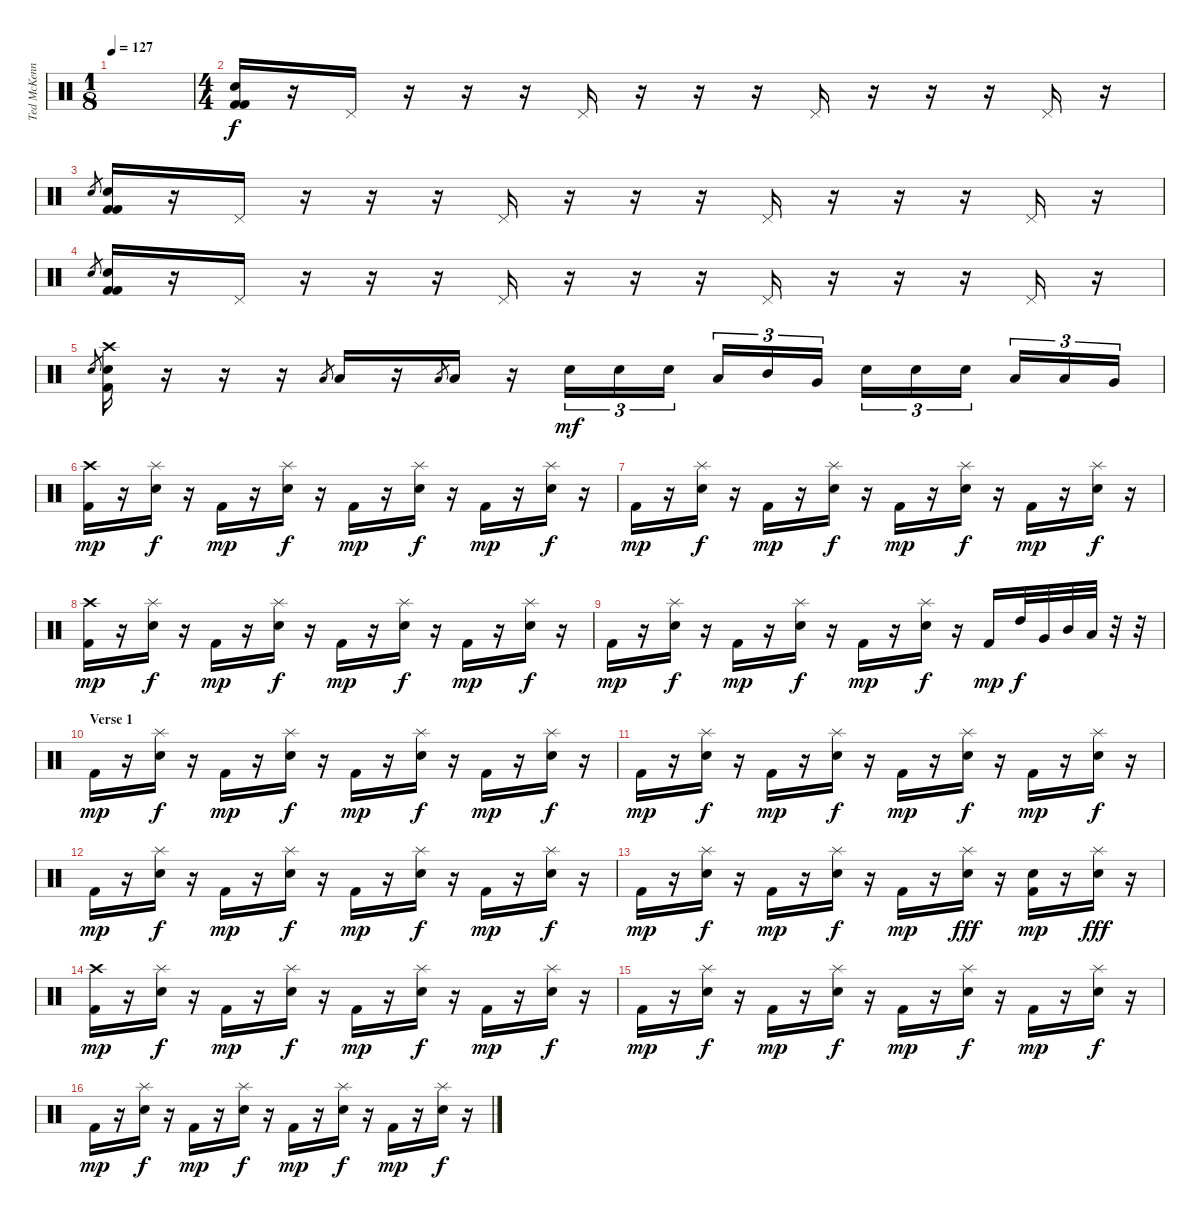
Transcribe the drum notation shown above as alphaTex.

\track ("Ted McKenna" "Ted McKenn") {instrument percussion}
\staff {score}
\articulation defaults
\ts (1 8)
\tempo 127
\clef neutral
\ks c
|
\ts (4 4)
("Electric Snare (hit)" "Kick (hit) 2" "Kick (hit) 2").16 r.16 "Pedal Hi-Hat (hit)".16 r.16 r.16 r.16 "Pedal Hi-Hat (hit)".16 r.16 r.16 r.16 "Pedal Hi-Hat (hit)".16 r.16 r.16 r.16 "Pedal Hi-Hat (hit)".16 r.16 |
"Electric Snare (hit)".8{gr} ("Electric Snare (hit)" "Kick (hit) 2" "Kick (hit) 2").16 r.16 "Pedal Hi-Hat (hit)".16 r.16 r.16 r.16 "Pedal Hi-Hat (hit)".16 r.16 r.16 r.16 "Pedal Hi-Hat (hit)".16 r.16 r.16 r.16 "Pedal Hi-Hat (hit)".16 r.16 |
"Electric Snare (hit)".8{gr} ("Electric Snare (hit)" "Kick (hit) 2" "Kick (hit) 2").16 r.16 "Pedal Hi-Hat (hit)".16 r.16 r.16 r.16 "Pedal Hi-Hat (hit)".16 r.16 r.16 r.16 "Pedal Hi-Hat (hit)".16 r.16 r.16 r.16 "Pedal Hi-Hat (hit)".16 r.16 |
"Snare (hit) 2".8{gr} ("Crash high (hit)" "Electric Snare (hit)" "Kick (hit) 2").16 r.16 r.16 r.16 "Low Tom (hit)".8{gr} "Low Tom (hit)".16 r.16 "Low Tom (hit)".8{gr} "Low Tom (hit)".16 r.16 "Snare (hit) 2".16{tu (3 2) dy mf} "Snare (hit) 2".16{tu (3 2)} "Snare (hit) 2".16{tu (3 2)} "Low Tom (hit)".16{tu (3 2)} "Mid Tom (hit)".16{tu (3 2)} "Very Low Tom (hit)".16{tu (3 2)} "Snare (hit) 2".16{tu (3 2)} "Snare (hit) 2".16{tu (3 2)} "Snare (hit) 2".16{tu (3 2)} "Low Tom (hit)".16{tu (3 2)} "Low Tom (hit)".16{tu (3 2)} "Very Low Tom (hit)".16{tu (3 2)} |
("Crash high (hit)" "Kick (hit) 2").16{dy mp} r.16 ("Splash (hit)" "Snare (hit) 2").16{dy f} r.16 "Kick (hit) 2".16{dy mp} r.16 ("Splash (hit)" "Snare (hit) 2").16{dy f} r.16 "Kick (hit) 2".16{dy mp} r.16 ("Splash (hit)" "Snare (hit) 2").16{dy f} r.16 "Kick (hit) 2".16{dy mp} r.16 ("Splash (hit)" "Snare (hit) 2").16{dy f} r.16 |
"Kick (hit) 2".16{dy mp} r.16 ("Splash (hit)" "Snare (hit) 2").16{dy f} r.16 "Kick (hit) 2".16{dy mp} r.16 ("Splash (hit)" "Snare (hit) 2").16{dy f} r.16 "Kick (hit) 2".16{dy mp} r.16 ("Splash (hit)" "Snare (hit) 2").16{dy f} r.16 "Kick (hit) 2".16{dy mp} r.16 ("Splash (hit)" "Snare (hit) 2").16{dy f} r.16 |
("Crash high (hit)" "Kick (hit) 2").16{dy mp} r.16 ("Splash (hit)" "Snare (hit) 2").16{dy f} r.16 "Kick (hit) 2".16{dy mp} r.16 ("Splash (hit)" "Snare (hit) 2").16{dy f} r.16 "Kick (hit) 2".16{dy mp} r.16 ("Splash (hit)" "Snare (hit) 2").16{dy f} r.16 "Kick (hit) 2".16{dy mp} r.16 ("Splash (hit)" "Snare (hit) 2").16{dy f} r.16 |
"Kick (hit) 2".16{dy mp} r.16 ("Splash (hit)" "Snare (hit) 2").16{dy f} r.16 "Kick (hit) 2".16{dy mp} r.16 ("Splash (hit)" "Snare (hit) 2").16{dy f} r.16 "Kick (hit) 2".16{dy mp} r.16 ("Splash (hit)" "Snare (hit) 2").16{dy f} r.16 "Kick (hit) 2".16{dy mp} "High Tom (hit)".32{dy f} "Very Low Tom (hit)".32 "Mid Tom (hit)".32 "Low Tom (hit)".32 r.32 r.32 |
\section ("" "Verse 1")
"Kick (hit) 2".16{dy mp} r.16 ("Splash (hit)" "Snare (hit) 2").16{dy f} r.16 "Kick (hit) 2".16{dy mp} r.16 ("Splash (hit)" "Snare (hit) 2").16{dy f} r.16 "Kick (hit) 2".16{dy mp} r.16 ("Splash (hit)" "Snare (hit) 2").16{dy f} r.16 "Kick (hit) 2".16{dy mp} r.16 ("Splash (hit)" "Snare (hit) 2").16{dy f} r.16 |
"Kick (hit) 2".16{dy mp} r.16 ("Splash (hit)" "Snare (hit) 2").16{dy f} r.16 "Kick (hit) 2".16{dy mp} r.16 ("Splash (hit)" "Snare (hit) 2").16{dy f} r.16 "Kick (hit) 2".16{dy mp} r.16 ("Splash (hit)" "Snare (hit) 2").16{dy f} r.16 "Kick (hit) 2".16{dy mp} r.16 ("Splash (hit)" "Snare (hit) 2").16{dy f} r.16 |
"Kick (hit) 2".16{dy mp} r.16 ("Splash (hit)" "Snare (hit) 2").16{dy f} r.16 "Kick (hit) 2".16{dy mp} r.16 ("Splash (hit)" "Snare (hit) 2").16{dy f} r.16 "Kick (hit) 2".16{dy mp} r.16 ("Splash (hit)" "Snare (hit) 2").16{dy f} r.16 "Kick (hit) 2".16{dy mp} r.16 ("Splash (hit)" "Snare (hit) 2").16{dy f} r.16 |
"Kick (hit) 2".16{dy mp} r.16 ("Splash (hit)" "Snare (hit) 2").16{dy f} r.16 "Kick (hit) 2".16{dy mp} r.16 ("Splash (hit)" "Snare (hit) 2").16{dy f} r.16 "Kick (hit) 2".16{dy mp} r.16 ("Splash (hit)" "Electric Snare (hit)").16{dy fff} r.16 ("Electric Snare (hit)" "Kick (hit) 2").16{dy mp} r.16 ("Splash (hit)" "Electric Snare (hit)").16{dy fff} r.16 |
("Crash high (hit)" "Kick (hit) 2").16{dy mp} r.16 ("Splash (hit)" "Snare (hit) 2").16{dy f} r.16 "Kick (hit) 2".16{dy mp} r.16 ("Splash (hit)" "Snare (hit) 2").16{dy f} r.16 "Kick (hit) 2".16{dy mp} r.16 ("Splash (hit)" "Snare (hit) 2").16{dy f} r.16 "Kick (hit) 2".16{dy mp} r.16 ("Splash (hit)" "Snare (hit) 2").16{dy f} r.16 |
"Kick (hit) 2".16{dy mp} r.16 ("Splash (hit)" "Snare (hit) 2").16{dy f} r.16 "Kick (hit) 2".16{dy mp} r.16 ("Splash (hit)" "Snare (hit) 2").16{dy f} r.16 "Kick (hit) 2".16{dy mp} r.16 ("Splash (hit)" "Snare (hit) 2").16{dy f} r.16 "Kick (hit) 2".16{dy mp} r.16 ("Splash (hit)" "Snare (hit) 2").16{dy f} r.16 |
"Kick (hit) 2".16{dy mp} r.16 ("Splash (hit)" "Snare (hit) 2").16{dy f} r.16 "Kick (hit) 2".16{dy mp} r.16 ("Splash (hit)" "Snare (hit) 2").16{dy f} r.16 "Kick (hit) 2".16{dy mp} r.16 ("Splash (hit)" "Snare (hit) 2").16{dy f} r.16 "Kick (hit) 2".16{dy mp} r.16 ("Splash (hit)" "Snare (hit) 2").16{dy f} r.16
